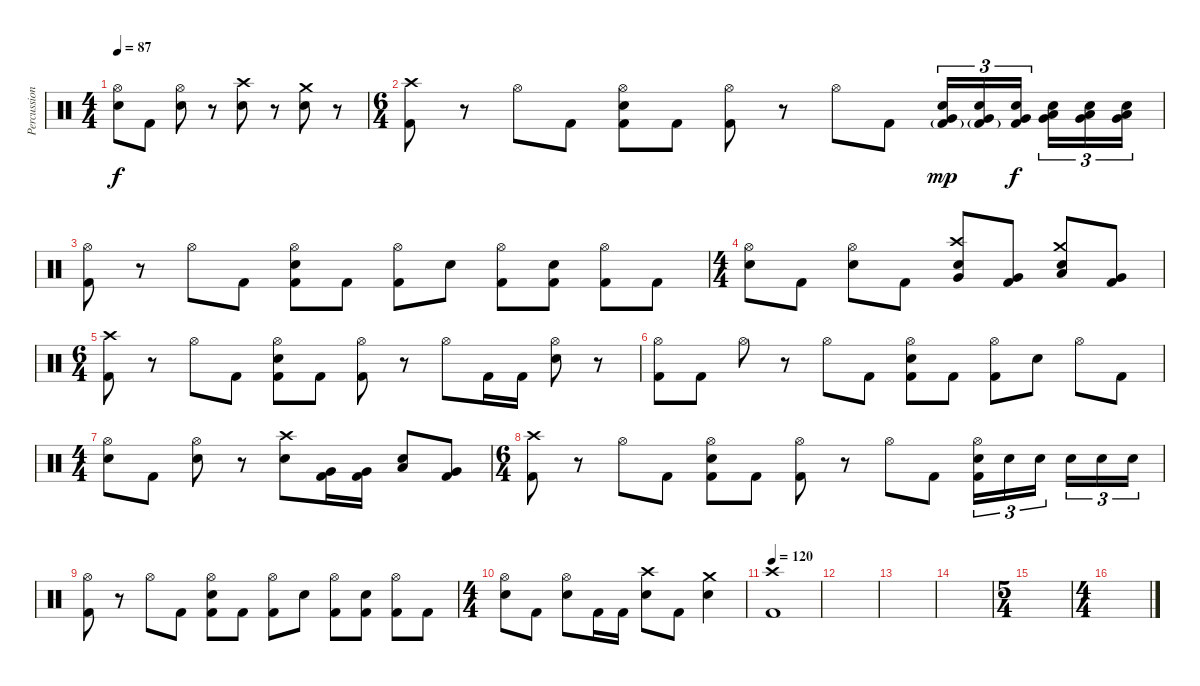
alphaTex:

\track ("Percussion" "Percussion") {instrument percussion}
\staff {score}
\articulation defaults
\ts (4 4)
\tempo 87
\clef neutral
\ks c
("Hi-Hat (open)" "Snare (hit) 2").8{dy f} "Kick (hit) 2".8 ("Hi-Hat (open)" "Snare (hit) 2").8 r.8 ("Crash high (hit)" "Snare (hit) 2").8 r.8 ("Crash medium (hit)" "Snare (hit) 2").8 r.8 |
\ts (6 4)
("Crash high (hit)" "Kick (hit) 2").8 r.8 "Hi-Hat (open)".8 "Kick (hit) 2".8 ("Hi-Hat (open)" "Snare (hit) 2" "Kick (hit) 2").8 "Kick (hit) 2".8 ("Hi-Hat (open)" "Kick (hit) 2").8 r.8 "Hi-Hat (open)".8 "Kick (hit) 2".8 ("Electric Snare (hit)" "Very Low Tom (hit)" "Kick (hit) 2"{g}).16{tu (3 2) dy mp} ("Electric Snare (hit)" "Very Low Tom (hit)" "Kick (hit) 2"{g}).16{tu (3 2)} ("Electric Snare (hit)" "Very Low Tom (hit)" "Kick (hit) 2").16{tu (3 2) dy f} ("Snare (hit) 2" "Low Floor Tom (hit)" "Very Low Tom (hit)").16{tu (3 2)} ("Snare (hit) 2" "Low Floor Tom (hit)" "Very Low Tom (hit)").16{tu (3 2)} ("Snare (hit) 2" "Low Floor Tom (hit)" "Very Low Tom (hit)").16{tu (3 2)} |
("Hi-Hat (open)" "Kick (hit) 2").8 r.8 "Hi-Hat (open)".8 "Kick (hit) 2".8 ("Hi-Hat (open)" "Snare (hit) 2" "Kick (hit) 2").8 "Kick (hit) 2".8 ("Hi-Hat (open)" "Kick (hit) 2").8 "Electric Snare (hit)".8 ("Hi-Hat (open)" "Kick (hit) 2").8 ("Snare (hit) 2" "Kick (hit) 2").8 ("Hi-Hat (open)" "Kick (hit) 2").8 "Kick (hit) 2".8 |
\ts (4 4)
("Hi-Hat (open)" "Snare (hit) 2").8 "Kick (hit) 2".8 ("Hi-Hat (open)" "Snare (hit) 2").8 "Kick (hit) 2".8 ("Crash high (hit)" "Very Low Tom (hit)" "Snare (hit) 2").8 ("Very Low Tom (hit)" "Kick (hit) 2").8 ("Crash medium (hit)" "Low Floor Tom (hit)" "Snare (hit) 2").8 ("Very Low Tom (hit)" "Kick (hit) 2").8 |
\ts (6 4)
("Crash high (hit)" "Kick (hit) 2").8 r.8 "Hi-Hat (open)".8 "Kick (hit) 2".8 ("Hi-Hat (open)" "Snare (hit) 2" "Kick (hit) 2").8 "Kick (hit) 2".8 ("Hi-Hat (open)" "Kick (hit) 2").8 r.8 "Hi-Hat (open)".8 "Kick (hit) 2".16 "Kick (hit) 2".16 ("Hi-Hat (open)" "Snare (hit) 2").8 r.8 |
("Hi-Hat (open)" "Kick (hit) 2").8 "Kick (hit) 2".8 "Hi-Hat (open)".8 r.8 "Hi-Hat (open)".8 "Kick (hit) 2".8 ("Hi-Hat (open)" "Snare (hit) 2" "Kick (hit) 2").8 "Kick (hit) 2".8 ("Hi-Hat (open)" "Kick (hit) 2").8 "Electric Snare (hit)".8 "Hi-Hat (open)".8 "Kick (hit) 2".8 |
\ts (4 4)
("Hi-Hat (open)" "Snare (hit) 2").8 "Kick (hit) 2".8 ("Hi-Hat (open)" "Snare (hit) 2").8 r.8 ("Crash high (hit)" "Snare (hit) 2").8 ("Very Low Tom (hit)" "Kick (hit) 2").16 ("Very Low Tom (hit)" "Kick (hit) 2").16 ("Low Floor Tom (hit)" "Snare (hit) 2").8 ("Very Low Tom (hit)" "Kick (hit) 2").8 |
\ts (6 4)
("Crash high (hit)" "Kick (hit) 2").8 r.8 "Hi-Hat (open)".8 "Kick (hit) 2".8 ("Hi-Hat (open)" "Snare (hit) 2" "Kick (hit) 2").8 "Kick (hit) 2".8 ("Hi-Hat (open)" "Kick (hit) 2").8 r.8 "Hi-Hat (open)".8 "Kick (hit) 2".8 ("Hi-Hat (open)" "Snare (hit) 2" "Kick (hit) 2").16{tu (3 2)} "Snare (hit) 2".16{tu (3 2)} "Snare (hit) 2".16{tu (3 2)} "Snare (hit) 2".16{tu (3 2)} "Snare (hit) 2".16{tu (3 2)} "Snare (hit) 2".16{tu (3 2)} |
("Hi-Hat (open)" "Kick (hit) 2").8 r.8 "Hi-Hat (open)".8 "Kick (hit) 2".8 ("Hi-Hat (open)" "Snare (hit) 2" "Kick (hit) 2").8 "Kick (hit) 2".8 ("Hi-Hat (open)" "Kick (hit) 2").8 "Electric Snare (hit)".8 ("Hi-Hat (open)" "Kick (hit) 2").8 ("Snare (hit) 2" "Kick (hit) 2").8 ("Hi-Hat (open)" "Kick (hit) 2").8 "Kick (hit) 2".8 |
\ts (4 4)
("Hi-Hat (open)" "Snare (hit) 2").8 "Kick (hit) 2".8 ("Hi-Hat (open)" "Snare (hit) 2").8 "Kick (hit) 2".16 "Kick (hit) 2".16 ("Crash high (hit)" "Snare (hit) 2").8 "Kick (hit) 2".8 ("Crash medium (hit)" "Snare (hit) 2").4 |
\tempo 120
("Crash high (hit)" "Kick (hit) 2").1 |
|
|
|
\ts (5 4)
|
\ts (4 4)
